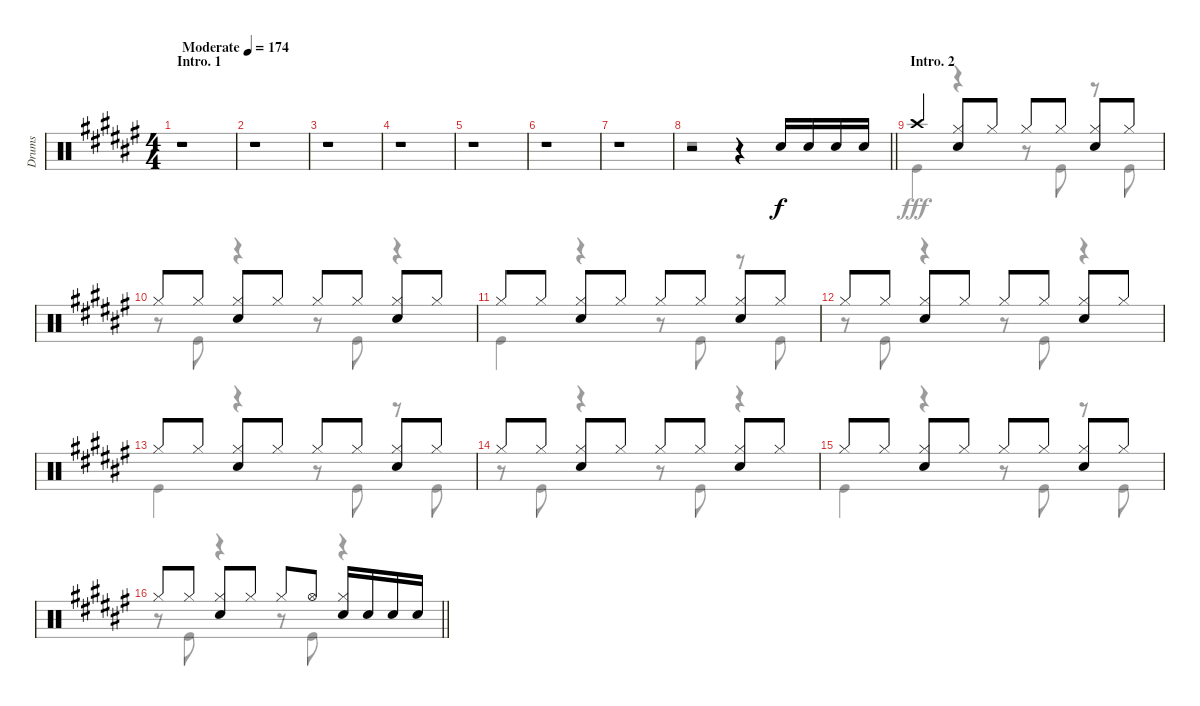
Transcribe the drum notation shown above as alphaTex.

\track ("Drums" "Drums") {instrument percussion}
\staff {score}
\articulation defaults
\voice
\ts (4 4)
\section ("" "Intro. 1")
\tempo (174 "Moderate")
\clef neutral
\ks f#
r.1{dy f} |
r.1 |
r.1 |
r.1 |
r.1 |
r.1 |
r.1 |
\barLineRight lightlight
r.2 r.4 "Snare (hit) 2".16 "Snare (hit) 2".16 "Snare (hit) 2".16 "Snare (hit) 2".16 |
\section ("" "Intro. 2")
"Crash high (hit)".4 ("Hi-Hat (closed)" "Snare (hit) 2").8 "Hi-Hat (closed)".8 "Hi-Hat (closed)".8 "Hi-Hat (closed)".8 ("Hi-Hat (closed)" "Snare (hit) 2").8 "Hi-Hat (closed)".8 |
"Hi-Hat (closed)".8 "Hi-Hat (closed)".8 ("Hi-Hat (closed)" "Snare (hit) 2").8 "Hi-Hat (closed)".8 "Hi-Hat (closed)".8 "Hi-Hat (closed)".8 ("Hi-Hat (closed)" "Snare (hit) 2").8 "Hi-Hat (closed)".8 |
"Hi-Hat (closed)".8 "Hi-Hat (closed)".8 ("Hi-Hat (closed)" "Snare (hit) 2").8 "Hi-Hat (closed)".8 "Hi-Hat (closed)".8 "Hi-Hat (closed)".8 ("Hi-Hat (closed)" "Snare (hit) 2").8 "Hi-Hat (closed)".8 |
"Hi-Hat (closed)".8 "Hi-Hat (closed)".8 ("Hi-Hat (closed)" "Snare (hit) 2").8 "Hi-Hat (closed)".8 "Hi-Hat (closed)".8 "Hi-Hat (closed)".8 ("Hi-Hat (closed)" "Snare (hit) 2").8 "Hi-Hat (closed)".8 |
"Hi-Hat (closed)".8 "Hi-Hat (closed)".8 ("Hi-Hat (closed)" "Snare (hit) 2").8 "Hi-Hat (closed)".8 "Hi-Hat (closed)".8 "Hi-Hat (closed)".8 ("Hi-Hat (closed)" "Snare (hit) 2").8 "Hi-Hat (closed)".8 |
"Hi-Hat (closed)".8 "Hi-Hat (closed)".8 ("Hi-Hat (closed)" "Snare (hit) 2").8 "Hi-Hat (closed)".8 "Hi-Hat (closed)".8 "Hi-Hat (closed)".8 ("Hi-Hat (closed)" "Snare (hit) 2").8 "Hi-Hat (closed)".8 |
"Hi-Hat (closed)".8 "Hi-Hat (closed)".8 ("Hi-Hat (closed)" "Snare (hit) 2").8 "Hi-Hat (closed)".8 "Hi-Hat (closed)".8 "Hi-Hat (closed)".8 ("Hi-Hat (closed)" "Snare (hit) 2").8 "Hi-Hat (closed)".8 |
\barLineRight lightlight "Hi-Hat (closed)".8 "Hi-Hat (closed)".8
("Hi-Hat (closed)" "Snare (hit) 2").8 "Hi-Hat (closed)".8 "Hi-Hat (closed)".8 "Hi-Hat (open)".8 ("Hi-Hat (closed)" "Snare (hit) 2").16 "Snare (hit) 2".16 "Snare (hit) 2".16 "Snare (hit) 2".16
\voice
\clef neutral
\ottava regular
\simile none
\ks f#
r.1{dy fff} |
r.1 |
r.1 |
r.1 |
r.1 |
r.1 |
r.1 |
\barLineRight lightlight
r.1 |
"Kick (hit)".4 r.4 r.8 "Kick (hit)".8 r.8 "Kick (hit)".8 |
r.8 "Kick (hit)".8 r.4 r.8 "Kick (hit)".8 r.4 |
"Kick (hit)".4 r.4 r.8 "Kick (hit)".8 r.8 "Kick (hit)".8 |
r.8 "Kick (hit)".8 r.4 r.8 "Kick (hit)".8 r.4 |
"Kick (hit)".4 r.4 r.8 "Kick (hit)".8 r.8 "Kick (hit)".8 |
r.8 "Kick (hit)".8 r.4 r.8 "Kick (hit)".8 r.4 |
"Kick (hit)".4 r.4 r.8 "Kick (hit)".8 r.8 "Kick (hit)".8 |
\barLineRight lightlight
r.8 "Kick (hit)".8 r.4 r.8 "Kick (hit)".8 r.4
